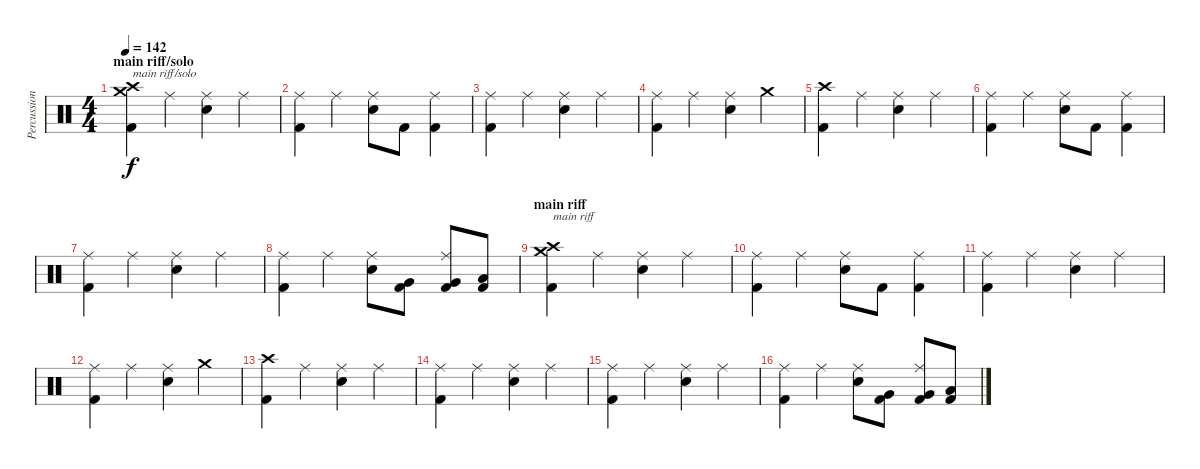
\track ("Percussion" "Percussion") {instrument percussion}
\staff {score}
\articulation defaults
\ts (4 4)
\section ("" "main riff/solo")
\tempo 142
\clef neutral
\ks c
("Crash medium (hit)" "Crash high (hit)" "Kick (hit) 2").4{txt "main riff/solo" dy f} "Ride (middle)".4 ("Ride (middle)" "Snare (hit) 2").4 "Ride (middle)".4 |
("Ride (middle)" "Kick (hit) 2").4 "Ride (middle)".4 ("Ride (middle)" "Snare (hit) 2").8 "Kick (hit) 2".8 ("Ride (middle)" "Kick (hit) 2").4 |
("Ride (middle)" "Kick (hit) 2").4 "Ride (middle)".4 ("Ride (middle)" "Snare (hit) 2").4 "Ride (middle)".4 |
("Ride (middle)" "Kick (hit) 2").4 "Ride (middle)".4 ("Ride (middle)" "Snare (hit) 2").4 "Crash medium (hit)".4 |
("Crash high (hit)" "Kick (hit) 2").4 "Ride (middle)".4 ("Ride (middle)" "Snare (hit) 2").4 "Ride (middle)".4 |
("Ride (middle)" "Kick (hit) 2").4 "Ride (middle)".4 ("Ride (middle)" "Snare (hit) 2").8 "Kick (hit) 2".8 ("Ride (middle)" "Kick (hit) 2").4 |
("Ride (middle)" "Kick (hit) 2").4 "Ride (middle)".4 ("Ride (middle)" "Snare (hit) 2").4 "Ride (middle)".4 |
("Ride (middle)" "Kick (hit) 2").4 "Ride (middle)".4 ("Ride (middle)" "Snare (hit) 2").8 ("Very Low Tom (hit)" "Kick (hit) 2").8 ("Ride (middle)" "Very Low Tom (hit)" "Kick (hit) 2").8 ("Low Floor Tom (hit)" "Kick (hit) 2").8 |
\section ("" "main riff")
("Crash medium (hit)" "Crash high (hit)" "Kick (hit) 2").4{txt "main riff"} "Ride (middle)".4 ("Ride (middle)" "Snare (hit) 2").4 "Ride (middle)".4 |
("Ride (middle)" "Kick (hit) 2").4 "Ride (middle)".4 ("Ride (middle)" "Snare (hit) 2").8 "Kick (hit) 2".8 ("Ride (middle)" "Kick (hit) 2").4 |
("Ride (middle)" "Kick (hit) 2").4 "Ride (middle)".4 ("Ride (middle)" "Snare (hit) 2").4 "Ride (middle)".4 |
("Ride (middle)" "Kick (hit) 2").4 "Ride (middle)".4 ("Ride (middle)" "Snare (hit) 2").4 "Crash medium (hit)".4 |
("Crash high (hit)" "Kick (hit) 2").4 "Ride (middle)".4 ("Ride (middle)" "Snare (hit) 2").4 "Ride (middle)".4 |
("Ride (middle)" "Kick (hit) 2").4 "Ride (middle)".4 ("Ride (middle)" "Snare (hit) 2").4 "Ride (middle)".4 |
("Ride (middle)" "Kick (hit) 2").4 "Ride (middle)".4 ("Ride (middle)" "Snare (hit) 2").4 "Ride (middle)".4 |
("Ride (middle)" "Kick (hit) 2").4 "Ride (middle)".4 ("Ride (middle)" "Snare (hit) 2").8 ("Very Low Tom (hit)" "Kick (hit) 2").8 ("Ride (middle)" "Very Low Tom (hit)" "Kick (hit) 2").8 ("Low Floor Tom (hit)" "Kick (hit) 2").8
